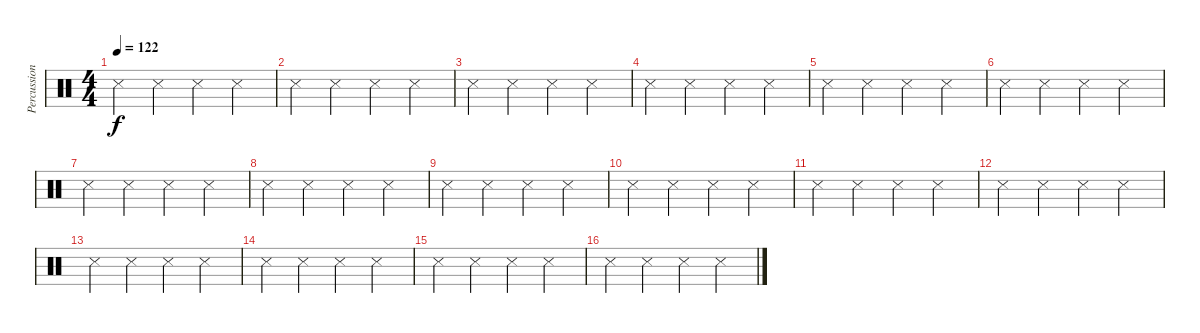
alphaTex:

\track ("Percussion" "Percussion") {instrument percussion}
\staff {score}
\articulation defaults
\ts (4 4)
\tempo 122
\clef neutral
\ks c "Snare (side stick) 3".4{dy f} "Metronome (hit)".4 "Metronome (hit)".4 "Metronome (hit)".4
|
"Snare (side stick) 3".4 "Metronome (hit)".4 "Metronome (hit)".4 "Metronome (hit)".4 |
"Snare (side stick) 3".4 "Metronome (hit)".4 "Metronome (hit)".4 "Metronome (hit)".4 |
"Snare (side stick) 3".4 "Metronome (hit)".4 "Metronome (hit)".4 "Metronome (hit)".4 |
"Snare (side stick) 3".4 "Metronome (hit)".4 "Metronome (hit)".4 "Metronome (hit)".4 |
"Snare (side stick) 3".4 "Metronome (hit)".4 "Metronome (hit)".4 "Metronome (hit)".4 |
"Snare (side stick) 3".4 "Metronome (hit)".4 "Metronome (hit)".4 "Metronome (hit)".4 |
"Snare (side stick) 3".4 "Metronome (hit)".4 "Metronome (hit)".4 "Metronome (hit)".4 |
"Snare (side stick) 3".4 "Metronome (hit)".4 "Metronome (hit)".4 "Metronome (hit)".4 |
"Snare (side stick) 3".4 "Metronome (hit)".4 "Metronome (hit)".4 "Metronome (hit)".4 |
"Snare (side stick) 3".4 "Metronome (hit)".4 "Metronome (hit)".4 "Metronome (hit)".4 |
"Snare (side stick) 3".4 "Metronome (hit)".4 "Metronome (hit)".4 "Metronome (hit)".4 |
"Snare (side stick) 3".4 "Metronome (hit)".4 "Metronome (hit)".4 "Metronome (hit)".4 |
"Snare (side stick) 3".4 "Metronome (hit)".4 "Metronome (hit)".4 "Metronome (hit)".4 |
"Snare (side stick) 3".4 "Metronome (hit)".4 "Metronome (hit)".4 "Metronome (hit)".4 |
"Snare (side stick) 3".4 "Metronome (hit)".4 "Metronome (hit)".4 "Metronome (hit)".4
